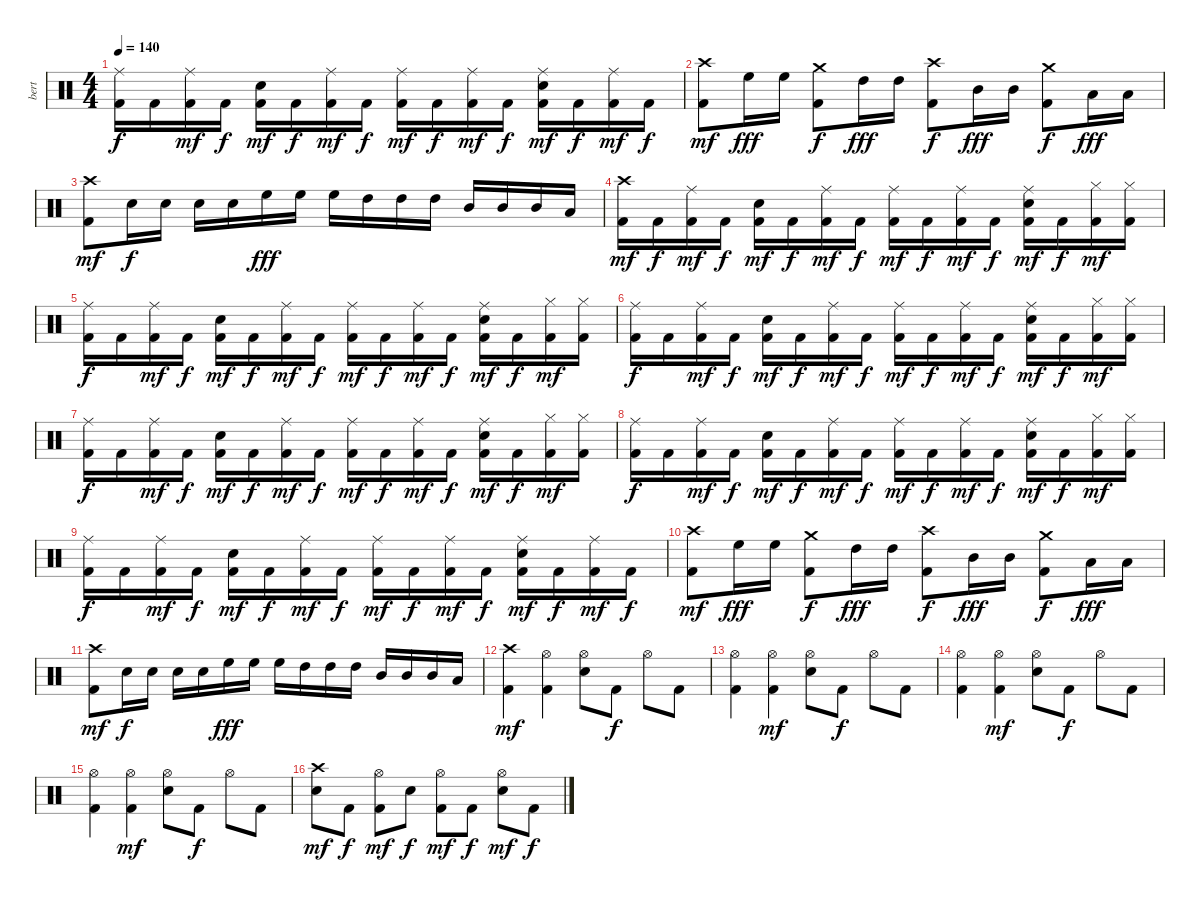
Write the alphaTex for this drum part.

\track ("bert" "bert") {instrument percussion}
\staff {score}
\articulation defaults
\ts (4 4)
\tempo 140
\clef neutral
\ks c
("Ride (middle)" "Kick (hit) 2").16{dy f} "Kick (hit) 2".16 ("Ride (middle)" "Kick (hit) 2").16{dy mf} "Kick (hit) 2".16{dy f} ("Snare (hit) 2" "Kick (hit) 2").16{dy mf} "Kick (hit) 2".16{dy f} ("Ride (middle)" "Kick (hit) 2").16{dy mf} "Kick (hit) 2".16{dy f} ("Ride (middle)" "Kick (hit) 2").16{dy mf} "Kick (hit) 2".16{dy f} ("Ride (middle)" "Kick (hit) 2").16{dy mf} "Kick (hit) 2".16{dy f} ("Ride (middle)" "Snare (hit) 2" "Kick (hit) 2").16{dy mf} "Kick (hit) 2".16{dy f} ("Ride (middle)" "Kick (hit) 2").16{dy mf} "Kick (hit) 2".16{dy f} |
("Crash high (hit)" "Kick (hit) 2").8{dy mf} "High Floor Tom (hit)".16{dy fff} "High Floor Tom (hit)".16 ("Crash medium (hit)" "Kick (hit) 2").8{dy f} "High Tom (hit)".16{dy fff} "High Tom (hit)".16 ("Crash high (hit)" "Kick (hit) 2").8{dy f} "Mid Tom (hit)".16{dy fff} "Mid Tom (hit)".16 ("Crash medium (hit)" "Kick (hit) 2").8{dy f} "Low Tom (hit)".16{dy fff} "Low Tom (hit)".16 |
("Crash high (hit)" "Kick (hit) 2").8{dy mf} "Snare (hit) 2".16{dy f} "Snare (hit) 2".16 "Snare (hit) 2".16 "Snare (hit) 2".16 "High Floor Tom (hit)".16{dy fff} "High Floor Tom (hit)".16 "High Floor Tom (hit)".16 "High Tom (hit)".16 "High Tom (hit)".16 "High Tom (hit)".16 "Mid Tom (hit)".16 "Mid Tom (hit)".16 "Mid Tom (hit)".16 "Low Tom (hit)".16 |
("Crash high (hit)" "Kick (hit) 2").16{dy mf} "Kick (hit) 2".16{dy f} ("Ride (middle)" "Kick (hit) 2").16{dy mf} "Kick (hit) 2".16{dy f} ("Snare (hit) 2" "Kick (hit) 2").16{dy mf} "Kick (hit) 2".16{dy f} ("Ride (middle)" "Kick (hit) 2").16{dy mf} "Kick (hit) 2".16{dy f} ("Ride (middle)" "Kick (hit) 2").16{dy mf} "Kick (hit) 2".16{dy f} ("Ride (middle)" "Kick (hit) 2").16{dy mf} "Kick (hit) 2".16{dy f} ("Ride (middle)" "Snare (hit) 2" "Kick (hit) 2").16{dy mf} "Kick (hit) 2".16{dy f} ("Hi-Hat (closed)" "Kick (hit) 2").16{dy mf} ("Hi-Hat (closed)" "Kick (hit) 2").16 |
("Ride (middle)" "Kick (hit) 2").16{dy f} "Kick (hit) 2".16 ("Ride (middle)" "Kick (hit) 2").16{dy mf} "Kick (hit) 2".16{dy f} ("Snare (hit) 2" "Kick (hit) 2").16{dy mf} "Kick (hit) 2".16{dy f} ("Ride (middle)" "Kick (hit) 2").16{dy mf} "Kick (hit) 2".16{dy f} ("Ride (middle)" "Kick (hit) 2").16{dy mf} "Kick (hit) 2".16{dy f} ("Ride (middle)" "Kick (hit) 2").16{dy mf} "Kick (hit) 2".16{dy f} ("Ride (middle)" "Snare (hit) 2" "Kick (hit) 2").16{dy mf} "Kick (hit) 2".16{dy f} ("Hi-Hat (closed)" "Kick (hit) 2").16{dy mf} ("Hi-Hat (closed)" "Kick (hit) 2").16 |
("Ride (middle)" "Kick (hit) 2").16{dy f} "Kick (hit) 2".16 ("Ride (middle)" "Kick (hit) 2").16{dy mf} "Kick (hit) 2".16{dy f} ("Snare (hit) 2" "Kick (hit) 2").16{dy mf} "Kick (hit) 2".16{dy f} ("Ride (middle)" "Kick (hit) 2").16{dy mf} "Kick (hit) 2".16{dy f} ("Ride (middle)" "Kick (hit) 2").16{dy mf} "Kick (hit) 2".16{dy f} ("Ride (middle)" "Kick (hit) 2").16{dy mf} "Kick (hit) 2".16{dy f} ("Ride (middle)" "Snare (hit) 2" "Kick (hit) 2").16{dy mf} "Kick (hit) 2".16{dy f} ("Hi-Hat (closed)" "Kick (hit) 2").16{dy mf} ("Hi-Hat (closed)" "Kick (hit) 2").16 |
("Ride (middle)" "Kick (hit) 2").16{dy f} "Kick (hit) 2".16 ("Ride (middle)" "Kick (hit) 2").16{dy mf} "Kick (hit) 2".16{dy f} ("Snare (hit) 2" "Kick (hit) 2").16{dy mf} "Kick (hit) 2".16{dy f} ("Ride (middle)" "Kick (hit) 2").16{dy mf} "Kick (hit) 2".16{dy f} ("Ride (middle)" "Kick (hit) 2").16{dy mf} "Kick (hit) 2".16{dy f} ("Ride (middle)" "Kick (hit) 2").16{dy mf} "Kick (hit) 2".16{dy f} ("Ride (middle)" "Snare (hit) 2" "Kick (hit) 2").16{dy mf} "Kick (hit) 2".16{dy f} ("Hi-Hat (closed)" "Kick (hit) 2").16{dy mf} ("Hi-Hat (closed)" "Kick (hit) 2").16 |
("Ride (middle)" "Kick (hit) 2").16{dy f} "Kick (hit) 2".16 ("Ride (middle)" "Kick (hit) 2").16{dy mf} "Kick (hit) 2".16{dy f} ("Snare (hit) 2" "Kick (hit) 2").16{dy mf} "Kick (hit) 2".16{dy f} ("Ride (middle)" "Kick (hit) 2").16{dy mf} "Kick (hit) 2".16{dy f} ("Ride (middle)" "Kick (hit) 2").16{dy mf} "Kick (hit) 2".16{dy f} ("Ride (middle)" "Kick (hit) 2").16{dy mf} "Kick (hit) 2".16{dy f} ("Ride (middle)" "Snare (hit) 2" "Kick (hit) 2").16{dy mf} "Kick (hit) 2".16{dy f} ("Hi-Hat (closed)" "Kick (hit) 2").16{dy mf} ("Hi-Hat (closed)" "Kick (hit) 2").16 |
("Ride (middle)" "Kick (hit) 2").16{dy f} "Kick (hit) 2".16 ("Ride (middle)" "Kick (hit) 2").16{dy mf} "Kick (hit) 2".16{dy f} ("Snare (hit) 2" "Kick (hit) 2").16{dy mf} "Kick (hit) 2".16{dy f} ("Ride (middle)" "Kick (hit) 2").16{dy mf} "Kick (hit) 2".16{dy f} ("Ride (middle)" "Kick (hit) 2").16{dy mf} "Kick (hit) 2".16{dy f} ("Ride (middle)" "Kick (hit) 2").16{dy mf} "Kick (hit) 2".16{dy f} ("Ride (middle)" "Snare (hit) 2" "Kick (hit) 2").16{dy mf} "Kick (hit) 2".16{dy f} ("Ride (middle)" "Kick (hit) 2").16{dy mf} "Kick (hit) 2".16{dy f} |
("Crash high (hit)" "Kick (hit) 2").8{dy mf} "High Floor Tom (hit)".16{dy fff} "High Floor Tom (hit)".16 ("Crash medium (hit)" "Kick (hit) 2").8{dy f} "High Tom (hit)".16{dy fff} "High Tom (hit)".16 ("Crash high (hit)" "Kick (hit) 2").8{dy f} "Mid Tom (hit)".16{dy fff} "Mid Tom (hit)".16 ("Crash medium (hit)" "Kick (hit) 2").8{dy f} "Low Tom (hit)".16{dy fff} "Low Tom (hit)".16 |
("Crash high (hit)" "Kick (hit) 2").8{dy mf} "Snare (hit) 2".16{dy f} "Snare (hit) 2".16 "Snare (hit) 2".16 "Snare (hit) 2".16 "High Floor Tom (hit)".16{dy fff} "High Floor Tom (hit)".16 "High Floor Tom (hit)".16 "High Tom (hit)".16 "High Tom (hit)".16 "High Tom (hit)".16 "Mid Tom (hit)".16 "Mid Tom (hit)".16 "Mid Tom (hit)".16 "Low Tom (hit)".16 |
("Crash high (hit)" "Kick (hit) 2").4{dy mf} ("Hi-Hat (open)" "Kick (hit) 2").4 ("Hi-Hat (open)" "Snare (hit) 2").8 "Kick (hit) 2".8{dy f} "Hi-Hat (open)".8 "Kick (hit) 2".8 |
("Hi-Hat (open)" "Kick (hit) 2").4 ("Hi-Hat (open)" "Kick (hit) 2").4{dy mf} ("Hi-Hat (open)" "Snare (hit) 2").8 "Kick (hit) 2".8{dy f} "Hi-Hat (open)".8 "Kick (hit) 2".8 |
("Hi-Hat (open)" "Kick (hit) 2").4 ("Hi-Hat (open)" "Kick (hit) 2").4{dy mf} ("Hi-Hat (open)" "Snare (hit) 2").8 "Kick (hit) 2".8{dy f} "Hi-Hat (open)".8 "Kick (hit) 2".8 |
("Hi-Hat (open)" "Kick (hit) 2").4 ("Hi-Hat (open)" "Kick (hit) 2").4{dy mf} ("Hi-Hat (open)" "Snare (hit) 2").8 "Kick (hit) 2".8{dy f} "Hi-Hat (open)".8 "Kick (hit) 2".8 |
("Crash high (hit)" "Snare (hit) 2").8{dy mf} "Kick (hit) 2".8{dy f} ("Hi-Hat (open)" "Kick (hit) 2").8{dy mf} "Snare (hit) 2".8{dy f} ("Hi-Hat (open)" "Kick (hit) 2").8{dy mf} "Kick (hit) 2".8{dy f} ("Hi-Hat (open)" "Snare (hit) 2").8{dy mf} "Kick (hit) 2".8{dy f}
